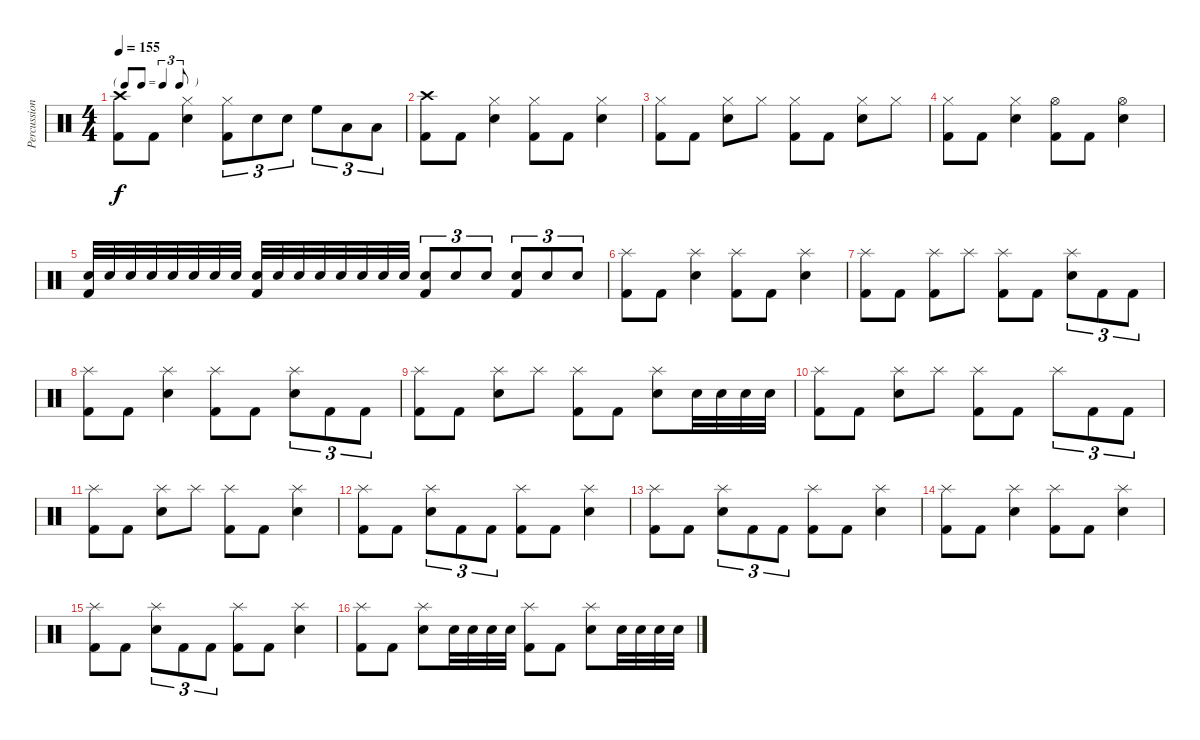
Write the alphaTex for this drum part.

\track ("Percussion" "Percussion") {instrument percussion}
\staff {score}
\articulation defaults
\ts (4 4)
\tf triplet8th
\tempo 155
\clef neutral
\ks c
("Kick (hit) 2" "Crash high (hit)").8{dy f} "Kick (hit) 2".8 ("Snare (hit) 2" "Hi-Hat (closed)").4 ("Kick (hit) 2" "Hi-Hat (closed)").8{tu (3 2)} "Snare (hit) 2".8{tu (3 2)} "Snare (hit) 2".8{tu (3 2)} "High Floor Tom (hit)".8{tu (3 2)} "Low Tom (hit)".8{tu (3 2)} "Low Floor Tom (hit)".8{tu (3 2)} |
("Kick (hit) 2" "Crash high (hit)").8 "Kick (hit) 2".8 ("Snare (hit) 2" "Hi-Hat (closed)").4 ("Kick (hit) 2" "Hi-Hat (closed)").8 "Kick (hit) 2".8 ("Snare (hit) 2" "Hi-Hat (closed)").4 |
("Kick (hit) 2" "Hi-Hat (closed)").8 "Kick (hit) 2".8 ("Snare (hit) 2" "Hi-Hat (closed)").8 "Hi-Hat (closed)".8 ("Kick (hit) 2" "Hi-Hat (closed)").8 "Kick (hit) 2".8 ("Snare (hit) 2" "Hi-Hat (closed)").8 "Hi-Hat (closed)".8 |
("Kick (hit) 2" "Hi-Hat (closed)").8 "Kick (hit) 2".8 ("Snare (hit) 2" "Hi-Hat (closed)").4 ("Kick (hit) 2" "Hi-Hat (open)").8 "Kick (hit) 2".8 ("Snare (hit) 2" "Hi-Hat (open)").4 |
("Snare (hit) 2" "Kick (hit) 2").32 "Snare (hit) 2".32 "Snare (hit) 2".32 "Snare (hit) 2".32 "Snare (hit) 2".32 "Snare (hit) 2".32 "Snare (hit) 2".32 "Snare (hit) 2".32 ("Snare (hit) 2" "Kick (hit) 2").32 "Snare (hit) 2".32 "Snare (hit) 2".32 "Snare (hit) 2".32 "Snare (hit) 2".32 "Snare (hit) 2".32 "Snare (hit) 2".32 "Snare (hit) 2".32 ("Snare (hit) 2" "Kick (hit) 2").8{tu (3 2)} "Snare (hit) 2".8{tu (3 2)} "Snare (hit) 2".8{tu (3 2)} ("Snare (hit) 2" "Kick (hit) 2").8{tu (3 2)} "Snare (hit) 2".8{tu (3 2)} "Snare (hit) 2".8{tu (3 2)} |
("Kick (hit) 2" "Splash (hit)").8 "Kick (hit) 2".8 ("Snare (hit) 2" "Splash (hit)").4 ("Kick (hit) 2" "Splash (hit)").8 "Kick (hit) 2".8 ("Snare (hit) 2" "Splash (hit)").4 |
("Kick (hit) 2" "Splash (hit)").8 "Kick (hit) 2".8 ("Kick (hit) 2" "Splash (hit)").8 "Splash (hit)".8 ("Kick (hit) 2" "Splash (hit)").8 "Kick (hit) 2".8 ("Snare (hit) 2" "Splash (hit)").8{tu (3 2)} "Kick (hit) 2".8{tu (3 2)} "Kick (hit) 2".8{tu (3 2)} |
("Kick (hit) 2" "Splash (hit)").8 "Kick (hit) 2".8 ("Snare (hit) 2" "Splash (hit)").4 ("Kick (hit) 2" "Splash (hit)").8 "Kick (hit) 2".8 ("Snare (hit) 2" "Splash (hit)").8{tu (3 2)} "Kick (hit) 2".8{tu (3 2)} "Kick (hit) 2".8{tu (3 2)} |
("Kick (hit) 2" "Splash (hit)").8 "Kick (hit) 2".8 ("Snare (hit) 2" "Splash (hit)").8 "Splash (hit)".8 ("Kick (hit) 2" "Splash (hit)").8 "Kick (hit) 2".8 ("Snare (hit) 2" "Splash (hit)").8 "Snare (hit) 2".32 "Snare (hit) 2".32 "Snare (hit) 2".32 "Snare (hit) 2".32 |
("Kick (hit) 2" "Splash (hit)").8 "Kick (hit) 2".8 ("Snare (hit) 2" "Splash (hit)").8 "Splash (hit)".8 ("Kick (hit) 2" "Splash (hit)").8 "Kick (hit) 2".8 "Splash (hit)".8{tu (3 2)} "Kick (hit) 2".8{tu (3 2)} "Kick (hit) 2".8{tu (3 2)} |
("Kick (hit) 2" "Splash (hit)").8 "Kick (hit) 2".8 ("Snare (hit) 2" "Splash (hit)").8 "Splash (hit)".8 ("Kick (hit) 2" "Splash (hit)").8 "Kick (hit) 2".8 ("Snare (hit) 2" "Splash (hit)").4 |
("Kick (hit) 2" "Splash (hit)").8 "Kick (hit) 2".8 ("Snare (hit) 2" "Splash (hit)").8{tu (3 2)} "Kick (hit) 2".8{tu (3 2)} "Kick (hit) 2".8{tu (3 2)} ("Kick (hit) 2" "Splash (hit)").8 "Kick (hit) 2".8 ("Snare (hit) 2" "Splash (hit)").4 |
("Kick (hit) 2" "Splash (hit)").8 "Kick (hit) 2".8 ("Snare (hit) 2" "Splash (hit)").8{tu (3 2)} "Kick (hit) 2".8{tu (3 2)} "Kick (hit) 2".8{tu (3 2)} ("Kick (hit) 2" "Splash (hit)").8 "Kick (hit) 2".8 ("Snare (hit) 2" "Splash (hit)").4 |
("Kick (hit) 2" "Splash (hit)").8 "Kick (hit) 2".8 ("Snare (hit) 2" "Splash (hit)").4 ("Kick (hit) 2" "Splash (hit)").8 "Kick (hit) 2".8 ("Snare (hit) 2" "Splash (hit)").4 |
("Kick (hit) 2" "Splash (hit)").8 "Kick (hit) 2".8 ("Snare (hit) 2" "Splash (hit)").8{tu (3 2)} "Kick (hit) 2".8{tu (3 2)} "Kick (hit) 2".8{tu (3 2)} ("Kick (hit) 2" "Splash (hit)").8 "Kick (hit) 2".8 ("Snare (hit) 2" "Splash (hit)").4 |
("Kick (hit) 2" "Splash (hit)").8 "Kick (hit) 2".8 ("Snare (hit) 2" "Splash (hit)").8 "Snare (hit) 2".32 "Snare (hit) 2".32 "Snare (hit) 2".32 "Snare (hit) 2".32 ("Kick (hit) 2" "Splash (hit)").8 "Kick (hit) 2".8 ("Snare (hit) 2" "Splash (hit)").8 "Snare (hit) 2".32 "Snare (hit) 2".32 "Snare (hit) 2".32 "Snare (hit) 2".32
